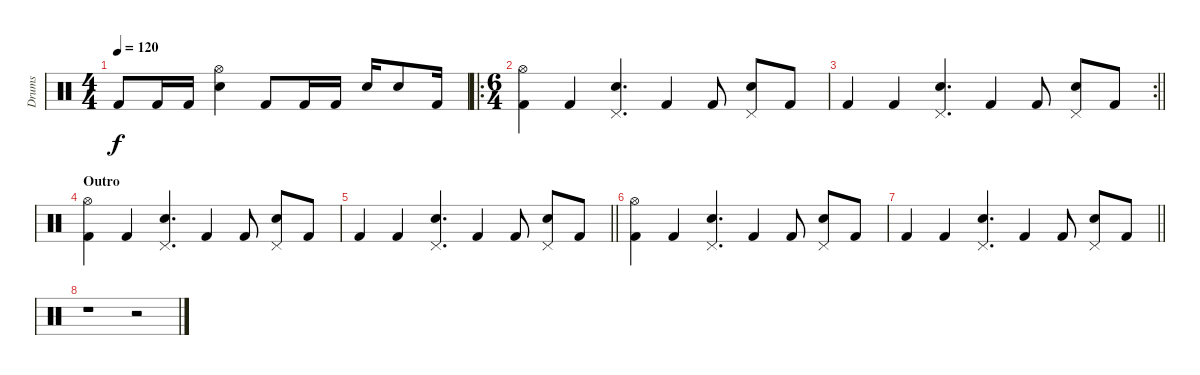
\track ("Drums" "Drums") {instrument percussion}
\staff {score}
\articulation defaults
\ts (4 4)
\tempo 120
\clef neutral
\ks c "Kick (hit) 2".8{dy f} "Kick (hit) 2".16 "Kick (hit) 2".16
("Hi-Hat (open)" "Snare (hit) 2").4 "Kick (hit) 2".8 "Kick (hit) 2".16 "Kick (hit) 2".16 "Snare (hit) 2".16 "Snare (hit) 2".8 "Kick (hit) 2".16 |
\ro
\ts (6 4)
("Hi-Hat (open)" "Kick (hit) 2").4 "Kick (hit) 2".4 ("Pedal Hi-Hat (hit)" "Snare (hit) 2").4{d} "Kick (hit) 2".4 "Kick (hit) 2".8 ("Pedal Hi-Hat (hit)" "Snare (hit) 2").8 "Kick (hit) 2".8 |
\rc 2
\barLineRight lightlight "Kick (hit) 2".4 "Kick (hit) 2".4
("Pedal Hi-Hat (hit)" "Snare (hit) 2").4{d} "Kick (hit) 2".4 "Kick (hit) 2".8 ("Pedal Hi-Hat (hit)" "Snare (hit) 2").8 "Kick (hit) 2".8 |
\section ("" "Outro")
("Hi-Hat (open)" "Kick (hit) 2").4 "Kick (hit) 2".4 ("Pedal Hi-Hat (hit)" "Snare (hit) 2").4{d} "Kick (hit) 2".4 "Kick (hit) 2".8 ("Pedal Hi-Hat (hit)" "Snare (hit) 2").8 "Kick (hit) 2".8 |
\barLineRight lightlight "Kick (hit) 2".4 "Kick (hit) 2".4
("Pedal Hi-Hat (hit)" "Snare (hit) 2").4{d} "Kick (hit) 2".4 "Kick (hit) 2".8 ("Pedal Hi-Hat (hit)" "Snare (hit) 2").8 "Kick (hit) 2".8 |
("Hi-Hat (open)" "Kick (hit) 2").4 "Kick (hit) 2".4 ("Pedal Hi-Hat (hit)" "Snare (hit) 2").4{d} "Kick (hit) 2".4 "Kick (hit) 2".8 ("Pedal Hi-Hat (hit)" "Snare (hit) 2").8 "Kick (hit) 2".8 |
\barLineRight lightlight "Kick (hit) 2".4 "Kick (hit) 2".4
("Pedal Hi-Hat (hit)" "Snare (hit) 2").4{d} "Kick (hit) 2".4 "Kick (hit) 2".8 ("Pedal Hi-Hat (hit)" "Snare (hit) 2").8 "Kick (hit) 2".8 |
r.1 r.2
